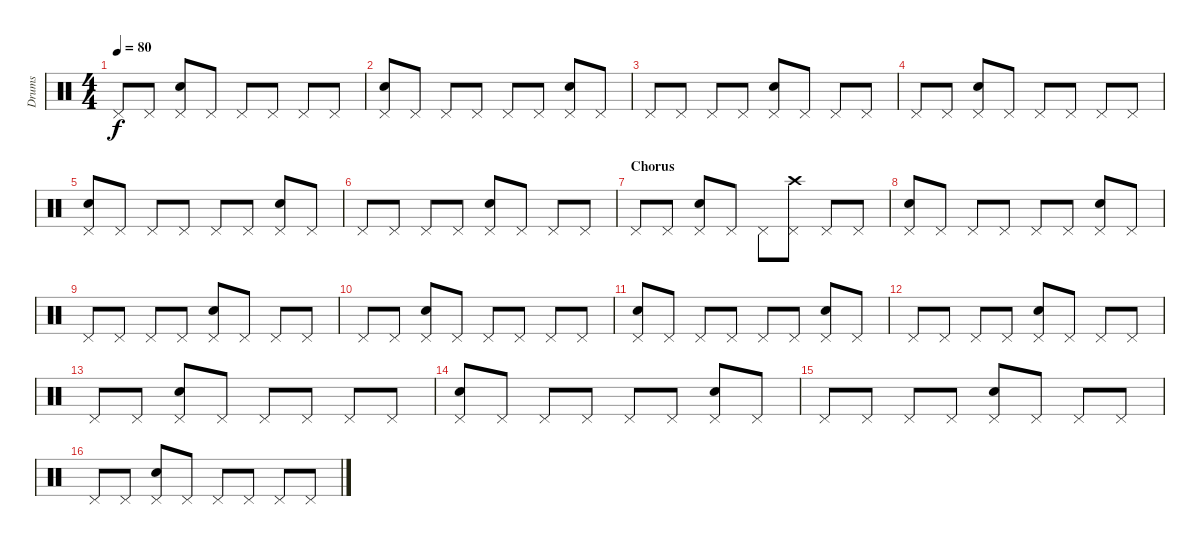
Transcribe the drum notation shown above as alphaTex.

\track ("Drums" "Drums") {instrument percussion}
\staff {score}
\articulation defaults
\ts (4 4)
\tempo 80
\clef neutral
\ks c "Pedal Hi-Hat (hit)".8{dy f} "Pedal Hi-Hat (hit)".8
("Electric Snare (hit)" "Pedal Hi-Hat (hit)").8 "Pedal Hi-Hat (hit)".8 "Pedal Hi-Hat (hit)".8 "Pedal Hi-Hat (hit)".8 "Pedal Hi-Hat (hit)".8 "Pedal Hi-Hat (hit)".8 |
("Electric Snare (hit)" "Pedal Hi-Hat (hit)").8 "Pedal Hi-Hat (hit)".8 "Pedal Hi-Hat (hit)".8 "Pedal Hi-Hat (hit)".8 "Pedal Hi-Hat (hit)".8 "Pedal Hi-Hat (hit)".8 ("Electric Snare (hit)" "Pedal Hi-Hat (hit)").8 "Pedal Hi-Hat (hit)".8 |
"Pedal Hi-Hat (hit)".8 "Pedal Hi-Hat (hit)".8 "Pedal Hi-Hat (hit)".8 "Pedal Hi-Hat (hit)".8 ("Electric Snare (hit)" "Pedal Hi-Hat (hit)").8 "Pedal Hi-Hat (hit)".8 "Pedal Hi-Hat (hit)".8 "Pedal Hi-Hat (hit)".8 |
"Pedal Hi-Hat (hit)".8 "Pedal Hi-Hat (hit)".8 ("Electric Snare (hit)" "Pedal Hi-Hat (hit)").8 "Pedal Hi-Hat (hit)".8 "Pedal Hi-Hat (hit)".8 "Pedal Hi-Hat (hit)".8 "Pedal Hi-Hat (hit)".8 "Pedal Hi-Hat (hit)".8 |
("Electric Snare (hit)" "Pedal Hi-Hat (hit)").8 "Pedal Hi-Hat (hit)".8 "Pedal Hi-Hat (hit)".8 "Pedal Hi-Hat (hit)".8 "Pedal Hi-Hat (hit)".8 "Pedal Hi-Hat (hit)".8 ("Electric Snare (hit)" "Pedal Hi-Hat (hit)").8 "Pedal Hi-Hat (hit)".8 |
"Pedal Hi-Hat (hit)".8 "Pedal Hi-Hat (hit)".8 "Pedal Hi-Hat (hit)".8 "Pedal Hi-Hat (hit)".8 ("Electric Snare (hit)" "Pedal Hi-Hat (hit)").8 "Pedal Hi-Hat (hit)".8 "Pedal Hi-Hat (hit)".8 "Pedal Hi-Hat (hit)".8 |
\section ("" "Chorus")
"Pedal Hi-Hat (hit)".8 "Pedal Hi-Hat (hit)".8 ("Electric Snare (hit)" "Pedal Hi-Hat (hit)").8 "Pedal Hi-Hat (hit)".8 "Pedal Hi-Hat (hit)".8 ("Crash high (hit)" "Pedal Hi-Hat (hit)").8 "Pedal Hi-Hat (hit)".8 "Pedal Hi-Hat (hit)".8 |
("Electric Snare (hit)" "Pedal Hi-Hat (hit)").8 "Pedal Hi-Hat (hit)".8 "Pedal Hi-Hat (hit)".8 "Pedal Hi-Hat (hit)".8 "Pedal Hi-Hat (hit)".8 "Pedal Hi-Hat (hit)".8 ("Electric Snare (hit)" "Pedal Hi-Hat (hit)").8 "Pedal Hi-Hat (hit)".8 |
"Pedal Hi-Hat (hit)".8 "Pedal Hi-Hat (hit)".8 "Pedal Hi-Hat (hit)".8 "Pedal Hi-Hat (hit)".8 ("Electric Snare (hit)" "Pedal Hi-Hat (hit)").8 "Pedal Hi-Hat (hit)".8 "Pedal Hi-Hat (hit)".8 "Pedal Hi-Hat (hit)".8 |
"Pedal Hi-Hat (hit)".8 "Pedal Hi-Hat (hit)".8 ("Electric Snare (hit)" "Pedal Hi-Hat (hit)").8 "Pedal Hi-Hat (hit)".8 "Pedal Hi-Hat (hit)".8 "Pedal Hi-Hat (hit)".8 "Pedal Hi-Hat (hit)".8 "Pedal Hi-Hat (hit)".8 |
("Electric Snare (hit)" "Pedal Hi-Hat (hit)").8 "Pedal Hi-Hat (hit)".8 "Pedal Hi-Hat (hit)".8 "Pedal Hi-Hat (hit)".8 "Pedal Hi-Hat (hit)".8 "Pedal Hi-Hat (hit)".8 ("Electric Snare (hit)" "Pedal Hi-Hat (hit)").8 "Pedal Hi-Hat (hit)".8 |
"Pedal Hi-Hat (hit)".8 "Pedal Hi-Hat (hit)".8 "Pedal Hi-Hat (hit)".8 "Pedal Hi-Hat (hit)".8 ("Electric Snare (hit)" "Pedal Hi-Hat (hit)").8 "Pedal Hi-Hat (hit)".8 "Pedal Hi-Hat (hit)".8 "Pedal Hi-Hat (hit)".8 |
"Pedal Hi-Hat (hit)".8 "Pedal Hi-Hat (hit)".8 ("Electric Snare (hit)" "Pedal Hi-Hat (hit)").8 "Pedal Hi-Hat (hit)".8 "Pedal Hi-Hat (hit)".8 "Pedal Hi-Hat (hit)".8 "Pedal Hi-Hat (hit)".8 "Pedal Hi-Hat (hit)".8 |
("Electric Snare (hit)" "Pedal Hi-Hat (hit)").8 "Pedal Hi-Hat (hit)".8 "Pedal Hi-Hat (hit)".8 "Pedal Hi-Hat (hit)".8 "Pedal Hi-Hat (hit)".8 "Pedal Hi-Hat (hit)".8 ("Electric Snare (hit)" "Pedal Hi-Hat (hit)").8 "Pedal Hi-Hat (hit)".8 |
"Pedal Hi-Hat (hit)".8 "Pedal Hi-Hat (hit)".8 "Pedal Hi-Hat (hit)".8 "Pedal Hi-Hat (hit)".8 ("Electric Snare (hit)" "Pedal Hi-Hat (hit)").8 "Pedal Hi-Hat (hit)".8 "Pedal Hi-Hat (hit)".8 "Pedal Hi-Hat (hit)".8 |
"Pedal Hi-Hat (hit)".8 "Pedal Hi-Hat (hit)".8 ("Electric Snare (hit)" "Pedal Hi-Hat (hit)").8 "Pedal Hi-Hat (hit)".8 "Pedal Hi-Hat (hit)".8 "Pedal Hi-Hat (hit)".8 "Pedal Hi-Hat (hit)".8 "Pedal Hi-Hat (hit)".8
